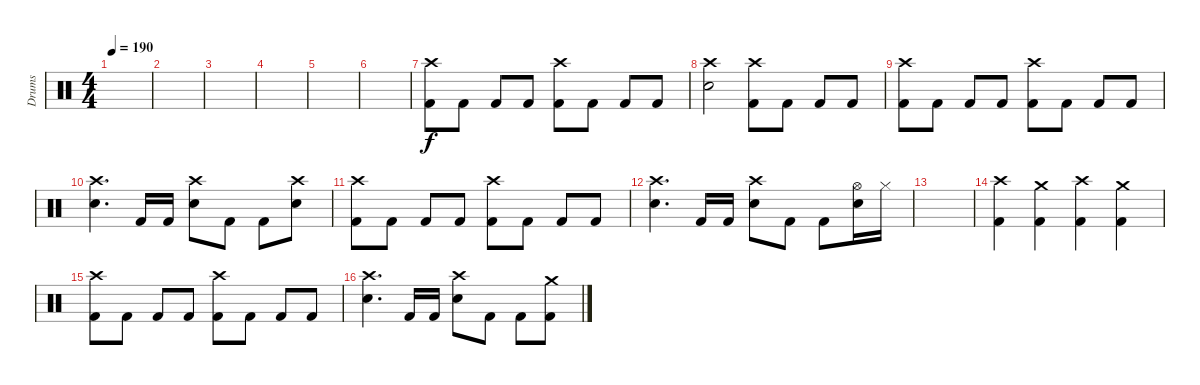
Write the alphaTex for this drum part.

\track ("Drums" "Drums") {instrument percussion}
\staff {score}
\articulation defaults
\ts (4 4)
\tempo 190
\clef neutral
\ks c
|
|
|
|
|
|
("Crash high (hit)" "Kick (hit) 2").8 "Kick (hit) 2".8 "Kick (hit) 2".8 "Kick (hit) 2".8 ("Crash high (hit)" "Kick (hit) 2").8 "Kick (hit) 2".8 "Kick (hit) 2".8 "Kick (hit) 2".8 |
("Crash high (hit)" "Electric Snare (hit)").2 ("Crash high (hit)" "Kick (hit) 2").8 "Kick (hit) 2".8 "Kick (hit) 2".8 "Kick (hit) 2".8 |
("Crash high (hit)" "Kick (hit) 2").8 "Kick (hit) 2".8 "Kick (hit) 2".8 "Kick (hit) 2".8 ("Crash high (hit)" "Kick (hit) 2").8 "Kick (hit) 2".8 "Kick (hit) 2".8 "Kick (hit) 2".8 |
("Crash high (hit)" "Electric Snare (hit)").4{d} "Kick (hit) 2".16 "Kick (hit) 2".16 ("Crash high (hit)" "Electric Snare (hit)").8 "Kick (hit) 2".8 "Kick (hit) 2".8 ("Crash high (hit)" "Electric Snare (hit)").8 |
("Crash high (hit)" "Kick (hit) 2").8 "Kick (hit) 2".8 "Kick (hit) 2".8 "Kick (hit) 2".8 ("Crash high (hit)" "Kick (hit) 2").8 "Kick (hit) 2".8 "Kick (hit) 2".8 "Kick (hit) 2".8 |
("Crash high (hit)" "Electric Snare (hit)").4{d} "Kick (hit) 2".16 "Kick (hit) 2".16 ("Crash high (hit)" "Electric Snare (hit)").8 "Kick (hit) 2".8 "Kick (hit) 2".8 ("Hi-Hat (open)" "Electric Snare (hit)").16 "Hi-Hat (closed)".16 |
|
("Crash high (hit)" "Kick (hit) 2").4 ("Crash medium (hit)" "Kick (hit) 2").4 ("Crash high (hit)" "Kick (hit) 2").4 ("Crash medium (hit)" "Kick (hit) 2").4 |
("Crash high (hit)" "Kick (hit) 2").8 "Kick (hit) 2".8 "Kick (hit) 2".8 "Kick (hit) 2".8 ("Crash high (hit)" "Kick (hit) 2").8 "Kick (hit) 2".8 "Kick (hit) 2".8 "Kick (hit) 2".8 |
("Crash high (hit)" "Electric Snare (hit)").4{d} "Kick (hit) 2".16 "Kick (hit) 2".16 ("Crash high (hit)" "Electric Snare (hit)").8 "Kick (hit) 2".8 "Kick (hit) 2".8 ("Crash medium (hit)" "Kick (hit) 2").8
